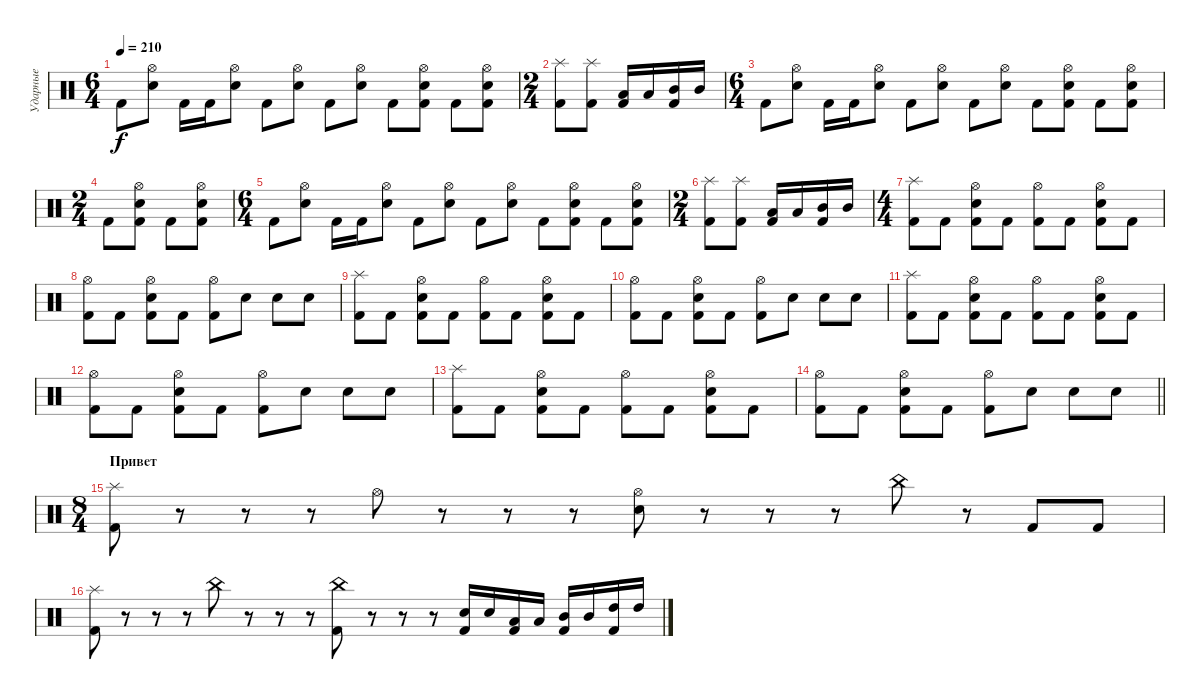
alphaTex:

\track ("Ударные" "Ударные") {mute instrument percussion}
\staff {score}
\articulation defaults
\ts (6 4)
\tempo 210
\clef neutral
\ks c "Kick (hit) 2".8{dy f}
("Electric Snare (hit)" "Hi-Hat (open)").8 "Kick (hit) 2".16 "Kick (hit) 2".16 ("Electric Snare (hit)" "Hi-Hat (open)").8 "Kick (hit) 2".8 ("Electric Snare (hit)" "Hi-Hat (open)").8 "Kick (hit) 2".8 ("Electric Snare (hit)" "Hi-Hat (open)").8 "Kick (hit) 2".8 ("Kick (hit) 2" "Electric Snare (hit)" "Hi-Hat (open)").8 "Kick (hit) 2".8 ("Kick (hit) 2" "Electric Snare (hit)" "Hi-Hat (open)").8 |
\ts (2 4)
("Kick (hit) 2" "Splash (hit)").8 ("Kick (hit) 2" "Splash (hit)").8 ("Kick (hit) 2" "Low Tom (hit)").16 "Low Tom (hit)".16 ("Kick (hit) 2" "Mid Tom (hit)").16 "Mid Tom (hit)".16 |
\ts (6 4)
"Kick (hit) 2".8 ("Electric Snare (hit)" "Hi-Hat (open)").8 "Kick (hit) 2".16 "Kick (hit) 2".16 ("Electric Snare (hit)" "Hi-Hat (open)").8 "Kick (hit) 2".8 ("Electric Snare (hit)" "Hi-Hat (open)").8 "Kick (hit) 2".8 ("Electric Snare (hit)" "Hi-Hat (open)").8 "Kick (hit) 2".8 ("Kick (hit) 2" "Electric Snare (hit)" "Hi-Hat (open)").8 "Kick (hit) 2".8 ("Kick (hit) 2" "Electric Snare (hit)" "Hi-Hat (open)").8 |
\ts (2 4)
"Kick (hit) 2".8 ("Kick (hit) 2" "Electric Snare (hit)" "Hi-Hat (open)").8 "Kick (hit) 2".8 ("Electric Snare (hit)" "Hi-Hat (open)" "Kick (hit) 2").8 |
\ts (6 4)
"Kick (hit) 2".8 ("Electric Snare (hit)" "Hi-Hat (open)").8 "Kick (hit) 2".16 "Kick (hit) 2".16 ("Electric Snare (hit)" "Hi-Hat (open)").8 "Kick (hit) 2".8 ("Electric Snare (hit)" "Hi-Hat (open)").8 "Kick (hit) 2".8 ("Electric Snare (hit)" "Hi-Hat (open)").8 "Kick (hit) 2".8 ("Kick (hit) 2" "Electric Snare (hit)" "Hi-Hat (open)").8 "Kick (hit) 2".8 ("Kick (hit) 2" "Electric Snare (hit)" "Hi-Hat (open)").8 |
\ts (2 4)
("Kick (hit) 2" "Splash (hit)").8 ("Kick (hit) 2" "Splash (hit)").8 ("Kick (hit) 2" "Low Tom (hit)").16 "Low Tom (hit)".16 ("Kick (hit) 2" "Mid Tom (hit)").16 "Mid Tom (hit)".16 |
\ts (4 4)
("Kick (hit) 2" "Splash (hit)").8 "Kick (hit) 2".8 ("Kick (hit) 2" "Electric Snare (hit)" "Hi-Hat (open)").8 "Kick (hit) 2".8 ("Kick (hit) 2" "Hi-Hat (open)").8 "Kick (hit) 2".8 ("Kick (hit) 2" "Electric Snare (hit)" "Hi-Hat (open)").8 "Kick (hit) 2".8 |
("Kick (hit) 2" "Hi-Hat (open)").8 "Kick (hit) 2".8 ("Kick (hit) 2" "Electric Snare (hit)" "Hi-Hat (open)").8 "Kick (hit) 2".8 ("Kick (hit) 2" "Hi-Hat (open)").8 "Electric Snare (hit)".8 "Electric Snare (hit)".8 "Electric Snare (hit)".8 |
("Kick (hit) 2" "Splash (hit)").8 "Kick (hit) 2".8 ("Kick (hit) 2" "Electric Snare (hit)" "Hi-Hat (open)").8 "Kick (hit) 2".8 ("Kick (hit) 2" "Hi-Hat (open)").8 "Kick (hit) 2".8 ("Kick (hit) 2" "Electric Snare (hit)" "Hi-Hat (open)").8 "Kick (hit) 2".8 |
("Kick (hit) 2" "Hi-Hat (open)").8 "Kick (hit) 2".8 ("Kick (hit) 2" "Electric Snare (hit)" "Hi-Hat (open)").8 "Kick (hit) 2".8 ("Kick (hit) 2" "Hi-Hat (open)").8 "Electric Snare (hit)".8 "Electric Snare (hit)".8 "Electric Snare (hit)".8 |
("Kick (hit) 2" "Splash (hit)").8 "Kick (hit) 2".8 ("Kick (hit) 2" "Electric Snare (hit)" "Hi-Hat (open)").8 "Kick (hit) 2".8 ("Kick (hit) 2" "Hi-Hat (open)").8 "Kick (hit) 2".8 ("Kick (hit) 2" "Electric Snare (hit)" "Hi-Hat (open)").8 "Kick (hit) 2".8 |
("Kick (hit) 2" "Hi-Hat (open)").8 "Kick (hit) 2".8 ("Kick (hit) 2" "Electric Snare (hit)" "Hi-Hat (open)").8 "Kick (hit) 2".8 ("Kick (hit) 2" "Hi-Hat (open)").8 "Electric Snare (hit)".8 "Electric Snare (hit)".8 "Electric Snare (hit)".8 |
("Kick (hit) 2" "Splash (hit)").8 "Kick (hit) 2".8 ("Kick (hit) 2" "Electric Snare (hit)" "Hi-Hat (open)").8 "Kick (hit) 2".8 ("Kick (hit) 2" "Hi-Hat (open)").8 "Kick (hit) 2".8 ("Kick (hit) 2" "Electric Snare (hit)" "Hi-Hat (open)").8 "Kick (hit) 2".8 |
\barLineRight lightlight
("Kick (hit) 2" "Hi-Hat (open)").8 "Kick (hit) 2".8 ("Kick (hit) 2" "Electric Snare (hit)" "Hi-Hat (open)").8 "Kick (hit) 2".8 ("Kick (hit) 2" "Hi-Hat (open)").8 "Electric Snare (hit)".8 "Electric Snare (hit)".8 "Electric Snare (hit)".8 |
\ts (8 4)
\section ("" "Привет")
("Kick (hit) 2" "Splash (hit)").8 r.8 r.8 r.8 "Hi-Hat (open)".8 r.8 r.8 r.8 ("Electric Snare (hit)" "Hi-Hat (open)").8 r.8 r.8 r.8 "China (hit)".8 r.8 "Kick (hit) 2".8 "Kick (hit) 2".8 |
("Kick (hit) 2" "Splash (hit)").8 r.8 r.8 r.8 "China (hit)".8 r.8 r.8 r.8 ("Kick (hit) 2" "China (hit)").8 r.8 r.8 r.8 ("Kick (hit) 2" "Electric Snare (hit)").16 "Electric Snare (hit)".16 ("Kick (hit) 2" "Low Tom (hit)").16 "Low Tom (hit)".16 ("Kick (hit) 2" "Mid Tom (hit)").16 "Mid Tom (hit)".16 ("Kick (hit) 2" "High Tom (hit)").16 "High Tom (hit)".16
